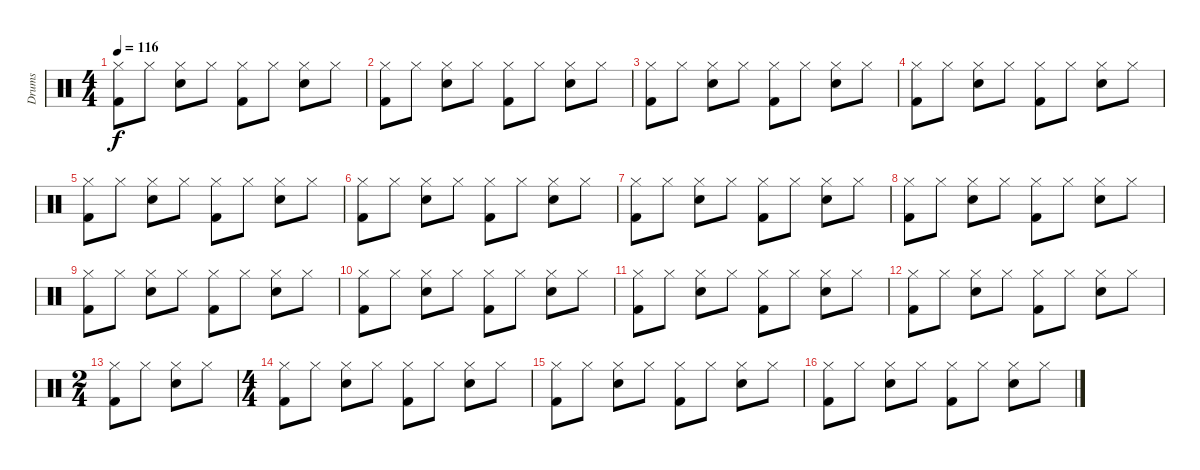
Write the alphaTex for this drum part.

\track ("Drums" "Drums") {instrument percussion}
\staff {score}
\articulation defaults
\ts (4 4)
\tempo 116
\clef neutral
\ks c
("Hi-Hat (closed)" "Kick (hit) 2").8{dy f} "Hi-Hat (closed)".8 ("Hi-Hat (closed)" "Snare (hit) 2").8 "Hi-Hat (closed)".8 ("Hi-Hat (closed)" "Kick (hit) 2").8 "Hi-Hat (closed)".8 ("Hi-Hat (closed)" "Snare (hit) 2").8 "Hi-Hat (closed)".8 |
("Hi-Hat (closed)" "Kick (hit) 2").8 "Hi-Hat (closed)".8 ("Hi-Hat (closed)" "Snare (hit) 2").8 "Hi-Hat (closed)".8 ("Hi-Hat (closed)" "Kick (hit) 2").8 "Hi-Hat (closed)".8 ("Hi-Hat (closed)" "Snare (hit) 2").8 "Hi-Hat (closed)".8 |
("Hi-Hat (closed)" "Kick (hit) 2").8 "Hi-Hat (closed)".8 ("Hi-Hat (closed)" "Snare (hit) 2").8 "Hi-Hat (closed)".8 ("Hi-Hat (closed)" "Kick (hit) 2").8 "Hi-Hat (closed)".8 ("Hi-Hat (closed)" "Snare (hit) 2").8 "Hi-Hat (closed)".8 |
("Hi-Hat (closed)" "Kick (hit) 2").8 "Hi-Hat (closed)".8 ("Hi-Hat (closed)" "Snare (hit) 2").8 "Hi-Hat (closed)".8 ("Hi-Hat (closed)" "Kick (hit) 2").8 "Hi-Hat (closed)".8 ("Hi-Hat (closed)" "Snare (hit) 2").8 "Hi-Hat (closed)".8 |
("Hi-Hat (closed)" "Kick (hit) 2").8 "Hi-Hat (closed)".8 ("Hi-Hat (closed)" "Snare (hit) 2").8 "Hi-Hat (closed)".8 ("Hi-Hat (closed)" "Kick (hit) 2").8 "Hi-Hat (closed)".8 ("Hi-Hat (closed)" "Snare (hit) 2").8 "Hi-Hat (closed)".8 |
("Hi-Hat (closed)" "Kick (hit) 2").8 "Hi-Hat (closed)".8 ("Hi-Hat (closed)" "Snare (hit) 2").8 "Hi-Hat (closed)".8 ("Hi-Hat (closed)" "Kick (hit) 2").8 "Hi-Hat (closed)".8 ("Hi-Hat (closed)" "Snare (hit) 2").8 "Hi-Hat (closed)".8 |
("Hi-Hat (closed)" "Kick (hit) 2").8 "Hi-Hat (closed)".8 ("Hi-Hat (closed)" "Snare (hit) 2").8 "Hi-Hat (closed)".8 ("Hi-Hat (closed)" "Kick (hit) 2").8 "Hi-Hat (closed)".8 ("Hi-Hat (closed)" "Snare (hit) 2").8 "Hi-Hat (closed)".8 |
("Hi-Hat (closed)" "Kick (hit) 2").8 "Hi-Hat (closed)".8 ("Hi-Hat (closed)" "Snare (hit) 2").8 "Hi-Hat (closed)".8 ("Hi-Hat (closed)" "Kick (hit) 2").8 "Hi-Hat (closed)".8 ("Hi-Hat (closed)" "Snare (hit) 2").8 "Hi-Hat (closed)".8 |
("Hi-Hat (closed)" "Kick (hit) 2").8 "Hi-Hat (closed)".8 ("Hi-Hat (closed)" "Snare (hit) 2").8 "Hi-Hat (closed)".8 ("Hi-Hat (closed)" "Kick (hit) 2").8 "Hi-Hat (closed)".8 ("Hi-Hat (closed)" "Snare (hit) 2").8 "Hi-Hat (closed)".8 |
("Hi-Hat (closed)" "Kick (hit) 2").8 "Hi-Hat (closed)".8 ("Hi-Hat (closed)" "Snare (hit) 2").8 "Hi-Hat (closed)".8 ("Hi-Hat (closed)" "Kick (hit) 2").8 "Hi-Hat (closed)".8 ("Hi-Hat (closed)" "Snare (hit) 2").8 "Hi-Hat (closed)".8 |
("Hi-Hat (closed)" "Kick (hit) 2").8 "Hi-Hat (closed)".8 ("Hi-Hat (closed)" "Snare (hit) 2").8 "Hi-Hat (closed)".8 ("Hi-Hat (closed)" "Kick (hit) 2").8 "Hi-Hat (closed)".8 ("Hi-Hat (closed)" "Snare (hit) 2").8 "Hi-Hat (closed)".8 |
("Hi-Hat (closed)" "Kick (hit) 2").8 "Hi-Hat (closed)".8 ("Hi-Hat (closed)" "Snare (hit) 2").8 "Hi-Hat (closed)".8 ("Hi-Hat (closed)" "Kick (hit) 2").8 "Hi-Hat (closed)".8 ("Hi-Hat (closed)" "Snare (hit) 2").8 "Hi-Hat (closed)".8 |
\ts (2 4)
("Hi-Hat (closed)" "Kick (hit) 2").8 "Hi-Hat (closed)".8 ("Hi-Hat (closed)" "Snare (hit) 2").8 "Hi-Hat (closed)".8 |
\ts (4 4)
("Hi-Hat (closed)" "Kick (hit) 2").8 "Hi-Hat (closed)".8 ("Hi-Hat (closed)" "Snare (hit) 2").8 "Hi-Hat (closed)".8 ("Hi-Hat (closed)" "Kick (hit) 2").8 "Hi-Hat (closed)".8 ("Hi-Hat (closed)" "Snare (hit) 2").8 "Hi-Hat (closed)".8 |
("Hi-Hat (closed)" "Kick (hit) 2").8 "Hi-Hat (closed)".8 ("Hi-Hat (closed)" "Snare (hit) 2").8 "Hi-Hat (closed)".8 ("Hi-Hat (closed)" "Kick (hit) 2").8 "Hi-Hat (closed)".8 ("Hi-Hat (closed)" "Snare (hit) 2").8 "Hi-Hat (closed)".8 |
("Hi-Hat (closed)" "Kick (hit) 2").8 "Hi-Hat (closed)".8 ("Hi-Hat (closed)" "Snare (hit) 2").8 "Hi-Hat (closed)".8 ("Hi-Hat (closed)" "Kick (hit) 2").8 "Hi-Hat (closed)".8 ("Hi-Hat (closed)" "Snare (hit) 2").8 "Hi-Hat (closed)".8
